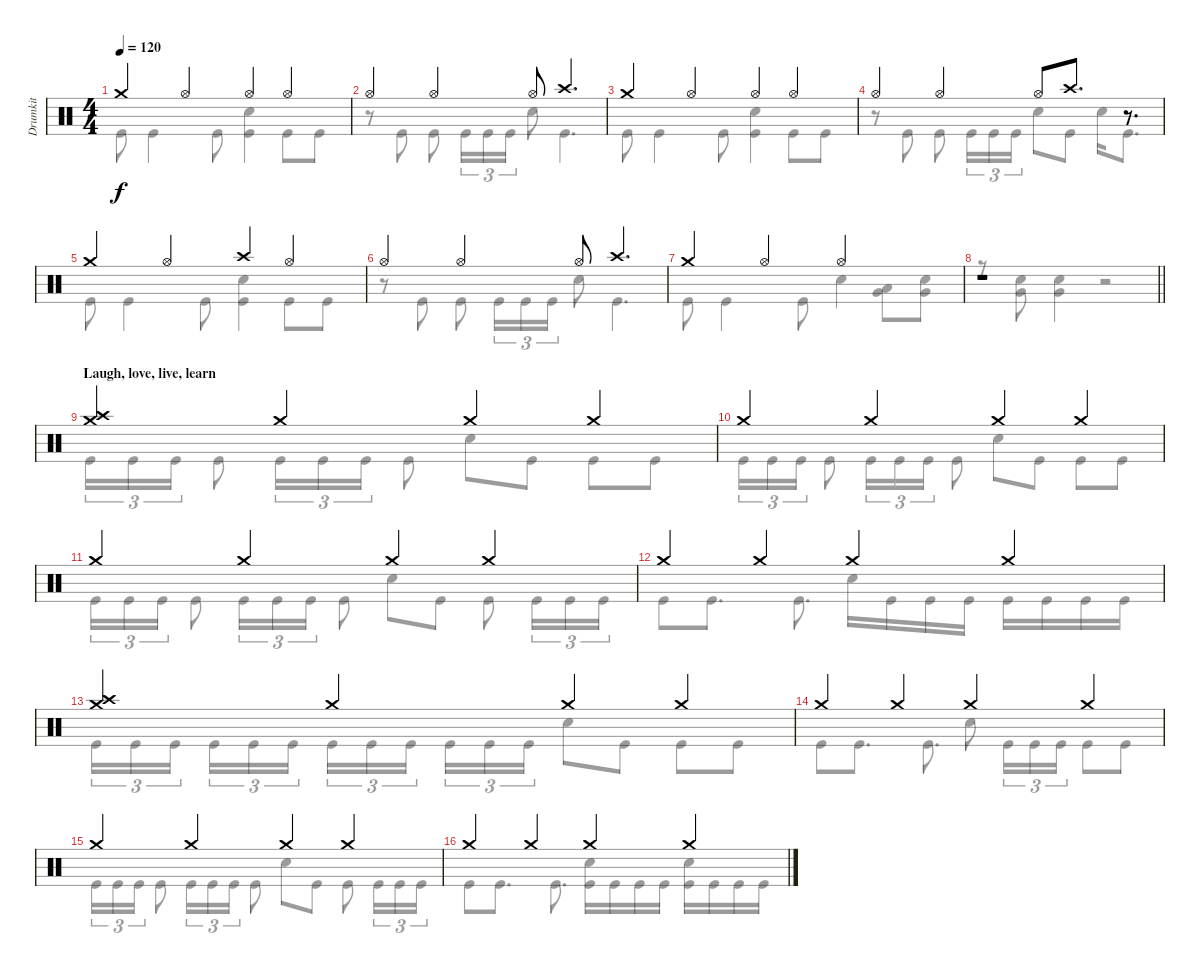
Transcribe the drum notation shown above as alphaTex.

\track ("Drumkit" "Drumkit") {instrument percussion}
\staff {score}
\articulation defaults
\voice
\ts (4 4)
\tempo 120
\clef neutral
\ks c "Crash medium (hit)".4{dy f} "Hi-Hat (open)".4 "Hi-Hat (open)".4 "Hi-Hat (open)".4
|
"Hi-Hat (open)".4 "Hi-Hat (open)".4 "Hi-Hat (open)".8 "Crash high (hit)".4{d} |
"Crash medium (hit)".4 "Hi-Hat (open)".4 "Hi-Hat (open)".4 "Hi-Hat (open)".4 |
"Hi-Hat (open)".4 "Hi-Hat (open)".4 "Hi-Hat (open)".8 "Crash high (hit)".8{d} r.8{d} |
"Crash medium (hit)".4 "Hi-Hat (open)".4 "Crash high (hit)".4 "Hi-Hat (open)".4 |
"Hi-Hat (open)".4 "Hi-Hat (open)".4 "Hi-Hat (open)".8 "Crash high (hit)".4{d} |
"Crash medium (hit)".4 "Hi-Hat (open)".4 "Hi-Hat (open)".2 |
\barLineRight lightlight
r.1 |
\section ("" "Laugh, love, live, learn")
("Crash medium (hit)" "Crash high (hit)").4 "Crash medium (hit)".4 "Crash medium (hit)".4 "Crash medium (hit)".4 |
"Crash medium (hit)".4 "Crash medium (hit)".4 "Crash medium (hit)".4 "Crash medium (hit)".4 |
"Crash medium (hit)".4 "Crash medium (hit)".4 "Crash medium (hit)".4 "Crash medium (hit)".4 |
"Crash medium (hit)".4 "Crash medium (hit)".4 "Crash medium (hit)".4 "Crash medium (hit)".4 |
("Crash medium (hit)" "Crash high (hit)").4 "Crash medium (hit)".4 "Crash medium (hit)".4 "Crash medium (hit)".4 |
"Crash medium (hit)".4 "Crash medium (hit)".4 "Crash medium (hit)".4 "Crash medium (hit)".4 |
"Crash medium (hit)".4 "Crash medium (hit)".4 "Crash medium (hit)".4 "Crash medium (hit)".4 |
"Crash medium (hit)".4 "Crash medium (hit)".4 "Crash medium (hit)".4 "Crash medium (hit)".4
\voice
\clef neutral
\ottava regular
\simile none
\ks c "Kick (hit)".8{dy f} "Kick (hit)".4 "Kick (hit)".8
("Snare (hit) 2" "Kick (hit)").4 "Kick (hit)".8 "Kick (hit)".8 |
r.8 "Kick (hit)".8 "Kick (hit)".8 "Kick (hit)".16{tu (3 2)} "Kick (hit)".16{tu (3 2)} "Kick (hit)".16{tu (3 2)} "Snare (hit) 2".8 "Kick (hit)".4{d} |
"Kick (hit)".8 "Kick (hit)".4 "Kick (hit)".8 ("Snare (hit) 2" "Kick (hit)").4 "Kick (hit)".8 "Kick (hit)".8 |
r.8 "Kick (hit)".8 "Kick (hit)".8 "Kick (hit)".16{tu (3 2)} "Kick (hit)".16{tu (3 2)} "Kick (hit)".16{tu (3 2)} "Snare (hit) 2".8 "Kick (hit)".8 "Snare (hit) 2".16 "Kick (hit)".8{d} |
"Kick (hit)".8 "Kick (hit)".4 "Kick (hit)".8 ("Snare (hit) 2" "Kick (hit)").4 "Kick (hit)".8 "Kick (hit)".8 |
r.8 "Kick (hit)".8 "Kick (hit)".8 "Kick (hit)".16{tu (3 2)} "Kick (hit)".16{tu (3 2)} "Kick (hit)".16{tu (3 2)} "Snare (hit) 2".8 "Kick (hit)".4{d} |
"Kick (hit)".8 "Kick (hit)".4 "Kick (hit)".8 "Snare (hit) 2".4 ("Low Tom (hit)" "Very Low Tom (hit)").8 ("Snare (hit) 2" "Very Low Tom (hit)").8 |
\barLineRight lightlight
r.8 ("Snare (hit) 2" "Very Low Tom (hit)").8 ("Snare (hit) 2" "Very Low Tom (hit)").4 r.2 |
"Kick (hit)".16{tu (3 2)} "Kick (hit)".16{tu (3 2)} "Kick (hit)".16{tu (3 2)} "Kick (hit)".8 "Kick (hit)".16{tu (3 2)} "Kick (hit)".16{tu (3 2)} "Kick (hit)".16{tu (3 2)} "Kick (hit)".8 "Snare (hit) 2".8 "Kick (hit)".8 "Kick (hit)".8 "Kick (hit)".8 |
"Kick (hit)".16{tu (3 2)} "Kick (hit)".16{tu (3 2)} "Kick (hit)".16{tu (3 2)} "Kick (hit)".8 "Kick (hit)".16{tu (3 2)} "Kick (hit)".16{tu (3 2)} "Kick (hit)".16{tu (3 2)} "Kick (hit)".8 "Snare (hit) 2".8 "Kick (hit)".8 "Kick (hit)".8 "Kick (hit)".8 |
"Kick (hit)".16{tu (3 2)} "Kick (hit)".16{tu (3 2)} "Kick (hit)".16{tu (3 2)} "Kick (hit)".8 "Kick (hit)".16{tu (3 2)} "Kick (hit)".16{tu (3 2)} "Kick (hit)".16{tu (3 2)} "Kick (hit)".8 "Snare (hit) 2".8 "Kick (hit)".8 "Kick (hit)".8 "Kick (hit)".16{tu (3 2)} "Kick (hit)".16{tu (3 2)} "Kick (hit)".16{tu (3 2)} |
"Kick (hit)".8 "Kick (hit)".8{d} "Kick (hit)".8{d} "Snare (hit) 2".16 "Kick (hit)".16 "Kick (hit)".16 "Kick (hit)".16 "Kick (hit)".16 "Kick (hit)".16 "Kick (hit)".16 "Kick (hit)".16 |
"Kick (hit)".16{tu (3 2)} "Kick (hit)".16{tu (3 2)} "Kick (hit)".16{tu (3 2) beam splitsecondary} "Kick (hit)".16{tu (3 2)} "Kick (hit)".16{tu (3 2)} "Kick (hit)".16{tu (3 2)} "Kick (hit)".16{tu (3 2)} "Kick (hit)".16{tu (3 2)} "Kick (hit)".16{tu (3 2) beam splitsecondary} "Kick (hit)".16{tu (3 2)} "Kick (hit)".16{tu (3 2)} "Kick (hit)".16{tu (3 2)} "Snare (hit) 2".8 "Kick (hit)".8 "Kick (hit)".8 "Kick (hit)".8 |
"Kick (hit)".8 "Kick (hit)".8{d} "Kick (hit)".8{d} "Snare (hit) 2".8 "Kick (hit)".16{tu (3 2)} "Kick (hit)".16{tu (3 2)} "Kick (hit)".16{tu (3 2)} "Kick (hit)".8 "Kick (hit)".8 |
"Kick (hit)".16{tu (3 2)} "Kick (hit)".16{tu (3 2)} "Kick (hit)".16{tu (3 2)} "Kick (hit)".8 "Kick (hit)".16{tu (3 2)} "Kick (hit)".16{tu (3 2)} "Kick (hit)".16{tu (3 2)} "Kick (hit)".8 "Snare (hit) 2".8 "Kick (hit)".8 "Kick (hit)".8 "Kick (hit)".16{tu (3 2)} "Kick (hit)".16{tu (3 2)} "Kick (hit)".16{tu (3 2)} |
"Kick (hit)".8 "Kick (hit)".8{d} "Kick (hit)".8{d} ("Snare (hit) 2" "Kick (hit)").16 "Kick (hit)".16 "Kick (hit)".16 "Kick (hit)".16 ("Snare (hit) 2" "Kick (hit)").16 "Kick (hit)".16 "Kick (hit)".16 "Kick (hit)".16
